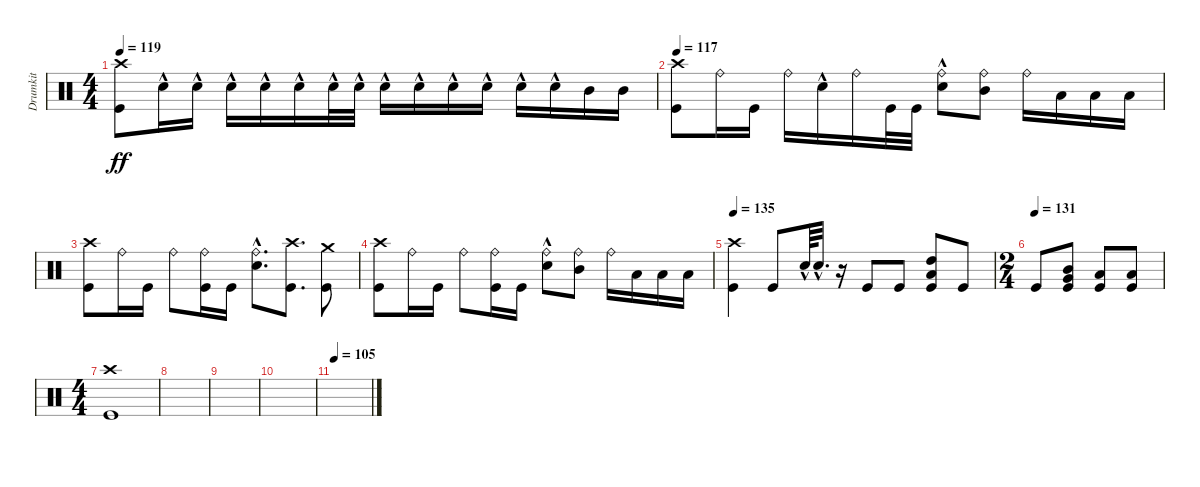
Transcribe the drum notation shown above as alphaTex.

\track ("Drumkit" "Drumkit") {instrument percussion}
\staff {score}
\articulation defaults
\ts (4 4)
\tempo 119
\clef neutral
\ks aminor
("Kick (hit)" "Crash high (hit)").8{dy ff} "Snare (hit) 2"{hac}.16 "Snare (hit) 2"{hac}.16 "Snare (hit) 2"{hac}.16 "Snare (hit) 2"{hac}.16 "Snare (hit) 2"{hac}.16 "Snare (hit) 2"{hac}.32 "Snare (hit) 2"{hac}.32 "Snare (hit) 2"{hac}.16 "Snare (hit) 2"{hac}.16 "Snare (hit) 2"{hac}.16 "Snare (hit) 2"{hac}.16 "Snare (hit) 2"{hac}.16 "Snare (hit) 2"{hac}.16 "Mid Tom (hit)".16 "Mid Tom (hit)".16 |
\tempo 117
("Kick (hit)" "Crash high (hit)").8 "Ride (bell)".16 "Kick (hit)".16 "Ride (bell)".16 "Snare (hit) 2"{hac}.16 "Ride (bell)".16 "Kick (hit)".32 "Kick (hit)".32 ("Ride (bell)" "Snare (hit) 2"{hac}).8 ("Ride (bell)" "Mid Tom (hit)").8 "Ride (bell)".16 "Low Tom (hit)".16 "Low Tom (hit)".16 "Low Tom (hit)".16 |
("Kick (hit)" "Crash high (hit)").8 "Ride (bell)".16 "Kick (hit)".16 "Ride (bell)".8 ("Ride (bell)" "Kick (hit)").16 "Kick (hit)".16 ("Ride (bell)" "Snare (hit) 2"{hac}).8{d} ("Kick (hit)" "Crash high (hit)").8{d} ("Kick (hit)" "Crash medium (hit)").8 |
("Kick (hit)" "Crash high (hit)").8 "Ride (bell)".16 "Kick (hit)".16 "Ride (bell)".8 ("Ride (bell)" "Kick (hit)").16 "Kick (hit)".16 ("Ride (bell)" "Snare (hit) 2"{hac}).8 ("Ride (bell)" "Mid Tom (hit)").8 "Ride (bell)".16 "Low Tom (hit)".16 "Low Tom (hit)".16 "Low Tom (hit)".16 |
\tempo 135
("Kick (hit)" "Crash high (hit)").4 "Kick (hit)".8 "Snare (hit) 2"{hac}.64 "Snare (hit) 2"{hac}.32{d} r.16 "Kick (hit)".8 "Kick (hit)".8 ("Kick (hit)" "High Tom (hit)" "Low Tom (hit)").8 "Kick (hit)".8 |
\ts (2 4)
\tempo (131)
"Kick (hit)".8 ("Kick (hit)" "Mid Tom (hit)" "Very Low Tom (hit)").8 ("Low Tom (hit)" "Kick (hit)").8 ("Low Tom (hit)" "Kick (hit)").8 |
\ts (4 4)
("Kick (hit)" "Crash high (hit)").1 |
|
|
|
\tempo 105
